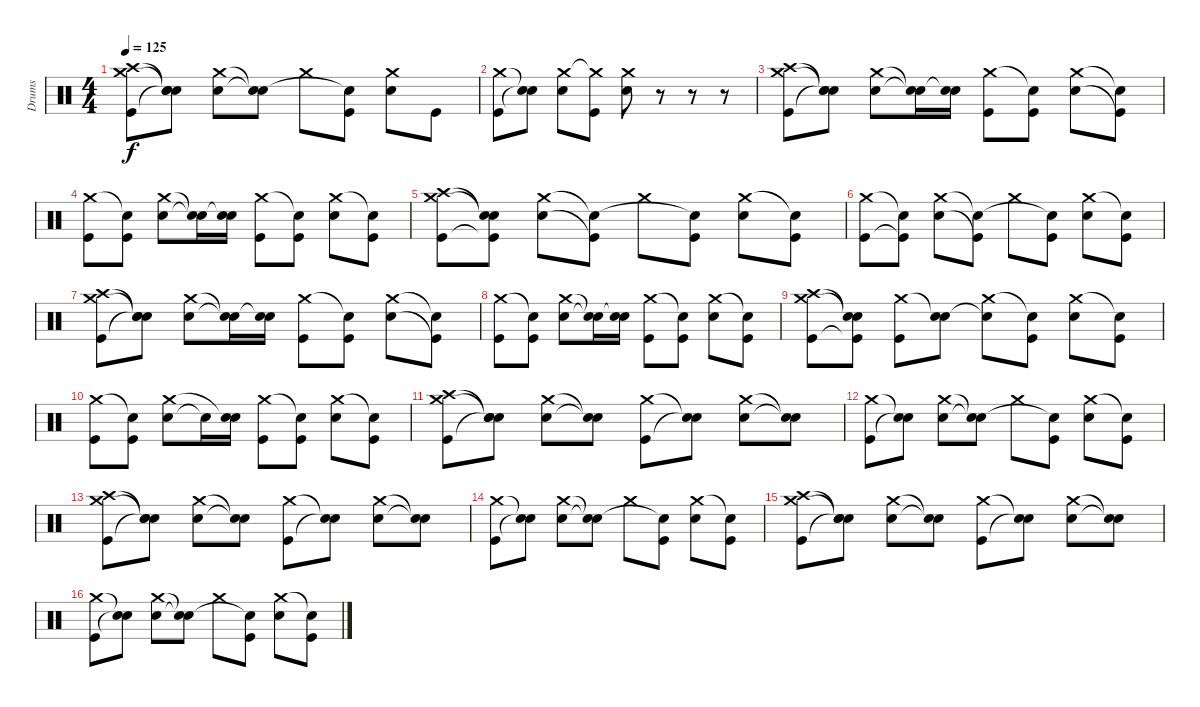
\track ("Drums" "Drums") {instrument percussion}
\staff {score}
\articulation defaults
\ts (4 4)
\tempo 125
\clef neutral
\ks c
("Kick (hit)" "Crash medium (hit)" "Crash high (hit)").8{dy f} ("Snare (hit)"{t} "Snare (hit)"{t} "Snare (hit)"{t}).8 ("Snare (hit) 2" "Crash medium (hit)").8 ("Snare (hit)"{t} "Snare (hit)"{t}).8 "Crash medium (hit)".8 ("Kick (hit)" "Snare (hit)"{t}).8 ("Snare (hit) 2" "Crash medium (hit)").8 "Kick (hit)".8 |
("Kick (hit)" "Crash medium (hit)").8 ("Snare (hit) 2"{t} "Snare (hit)"{t}).8 ("Snare (hit) 2" "Crash medium (hit)").8 ("Kick (hit)" "Crash medium (hit)"{t}).8 ("Snare (hit) 2" "Crash medium (hit)").8 r.8 r.8 r.8 |
("Kick (hit)" "Crash medium (hit)" "Crash high (hit)").8 ("Snare (hit)"{t} "Snare (hit)"{t} "Snare (hit)"{t}).8 ("Snare (hit) 2" "Crash medium (hit)").8 ("Snare (hit)"{t} "Snare (hit)"{t}).16 ("Snare (hit) 2" "Snare (hit)"{t}).16 ("Kick (hit)" "Crash medium (hit)").8 ("Kick (hit)" "Snare (hit)"{t}).8 ("Snare (hit) 2" "Crash medium (hit)").8 ("Kick (hit)"{t} "Snare (hit)"{t}).8 |
("Kick (hit)" "Crash medium (hit)").8 ("Kick (hit)" "Snare (hit)"{t}).8 ("Snare (hit) 2" "Crash medium (hit)").8 ("Snare (hit)"{t} "Snare (hit)"{t}).16 ("Snare (hit) 2" "Snare (hit)"{t}).16 ("Kick (hit)" "Crash medium (hit)").8 ("Kick (hit)" "Snare (hit)"{t}).8 ("Snare (hit) 2" "Crash medium (hit)").8 ("Kick (hit)" "Snare (hit)"{t}).8 |
("Kick (hit)" "Crash medium (hit)" "Crash high (hit)").8 ("Kick (hit)"{t} "Snare (hit)"{t} "Snare (hit)"{t}).8 ("Snare (hit) 2" "Crash medium (hit)").8 ("Kick (hit)"{t} "Snare (hit)"{t}).8 "Crash medium (hit)".8 ("Kick (hit)" "Snare (hit)"{t}).8 ("Snare (hit) 2" "Crash medium (hit)").8 ("Kick (hit)" "Snare (hit)"{t}).8 |
("Kick (hit)" "Crash medium (hit)").8 ("Kick (hit)"{t} "Snare (hit)"{t}).8 ("Snare (hit) 2" "Crash medium (hit)").8 ("Kick (hit)"{t} "Snare (hit)"{t}).8 "Crash medium (hit)".8 ("Kick (hit)" "Snare (hit)"{t}).8 ("Snare (hit) 2" "Crash medium (hit)").8 ("Kick (hit)" "Snare (hit)"{t}).8 |
("Kick (hit)" "Crash medium (hit)" "Crash high (hit)").8 ("Snare (hit)"{t} "Snare (hit)"{t} "Snare (hit)"{t}).8 ("Snare (hit) 2" "Crash medium (hit)").8 ("Snare (hit)"{t} "Snare (hit)"{t}).16 ("Snare (hit) 2" "Snare (hit)"{t}).16 ("Kick (hit)" "Crash medium (hit)").8 ("Kick (hit)" "Snare (hit)"{t}).8 ("Snare (hit) 2" "Crash medium (hit)").8 ("Kick (hit)"{t} "Snare (hit)"{t}).8 |
("Kick (hit)" "Crash medium (hit)").8 ("Kick (hit)" "Snare (hit)"{t}).8 ("Snare (hit) 2" "Crash medium (hit)").8 ("Snare (hit)"{t} "Snare (hit)"{t}).16 ("Snare (hit) 2" "Snare (hit)"{t}).16 ("Kick (hit)" "Crash medium (hit)").8 ("Kick (hit)" "Snare (hit)"{t}).8 ("Snare (hit) 2" "Crash medium (hit)").8 ("Kick (hit)" "Snare (hit)"{t}).8 |
("Kick (hit)" "Crash medium (hit)" "Crash high (hit)").8 ("Kick (hit)"{t} "Snare (hit)"{t} "Snare (hit)"{t}).8 ("Kick (hit)" "Crash medium (hit)").8 ("Snare (hit) 2" "Snare (hit)"{t}).8 ("Snare (hit)"{t} "Crash medium (hit)").8 ("Kick (hit)" "Snare (hit)"{t}).8 ("Snare (hit) 2" "Crash medium (hit)").8 ("Kick (hit)" "Snare (hit)"{t}).8 |
("Kick (hit)" "Crash medium (hit)").8 ("Kick (hit)" "Snare (hit)"{t}).8 ("Snare (hit) 2" "Crash medium (hit)").8 "Snare (hit)"{t}.16 ("Snare (hit) 2" "Snare (hit)"{t}).16 ("Kick (hit)" "Crash medium (hit)").8 ("Kick (hit)" "Snare (hit)"{t}).8 ("Snare (hit) 2" "Crash medium (hit)").8 ("Kick (hit)" "Snare (hit)"{t}).8 |
("Kick (hit)" "Crash medium (hit)" "Crash high (hit)").8 ("Snare (hit)"{t} "Snare (hit)"{t} "Snare (hit)"{t}).8 ("Snare (hit) 2" "Crash medium (hit)").8 ("Snare (hit)"{t} "Snare (hit)"{t}).8 ("Kick (hit)" "Crash medium (hit)").8 ("Snare (hit)"{t} "Snare (hit)"{t}).8 ("Snare (hit) 2" "Crash medium (hit)").8 ("Snare (hit)"{t} "Snare (hit)"{t}).8 |
("Kick (hit)" "Crash medium (hit)").8 ("Snare (hit) 2"{t} "Snare (hit)"{t}).8 ("Snare (hit) 2" "Crash medium (hit)").8 ("Snare (hit)"{t} "Snare (hit)"{t}).8 "Crash medium (hit)".8 ("Kick (hit)" "Snare (hit)"{t}).8 ("Snare (hit) 2" "Crash medium (hit)").8 ("Kick (hit)" "Snare (hit)"{t}).8 |
("Kick (hit)" "Crash medium (hit)" "Crash high (hit)").8 ("Snare (hit)"{t} "Snare (hit)"{t} "Snare (hit)"{t}).8 ("Snare (hit) 2" "Crash medium (hit)").8 ("Snare (hit)"{t} "Snare (hit)"{t}).8 ("Kick (hit)" "Crash medium (hit)").8 ("Snare (hit)"{t} "Snare (hit)"{t}).8 ("Snare (hit) 2" "Crash medium (hit)").8 ("Snare (hit)"{t} "Snare (hit)"{t}).8 |
("Kick (hit)" "Crash medium (hit)").8 ("Snare (hit) 2"{t} "Snare (hit)"{t}).8 ("Snare (hit) 2" "Crash medium (hit)").8 ("Snare (hit)"{t} "Snare (hit)"{t}).8 "Crash medium (hit)".8 ("Kick (hit)" "Snare (hit)"{t}).8 ("Snare (hit) 2" "Crash medium (hit)").8 ("Kick (hit)" "Snare (hit)"{t}).8 |
("Kick (hit)" "Crash medium (hit)" "Crash high (hit)").8 ("Snare (hit)"{t} "Snare (hit)"{t} "Snare (hit)"{t}).8 ("Snare (hit) 2" "Crash medium (hit)").8 ("Snare (hit)"{t} "Snare (hit)"{t}).8 ("Kick (hit)" "Crash medium (hit)").8 ("Snare (hit)"{t} "Snare (hit)"{t}).8 ("Snare (hit) 2" "Crash medium (hit)").8 ("Snare (hit)"{t} "Snare (hit)"{t}).8 |
("Kick (hit)" "Crash medium (hit)").8 ("Snare (hit) 2"{t} "Snare (hit)"{t}).8 ("Snare (hit) 2" "Crash medium (hit)").8 ("Snare (hit)"{t} "Snare (hit)"{t}).8 "Crash medium (hit)".8 ("Kick (hit)" "Snare (hit)"{t}).8 ("Snare (hit) 2" "Crash medium (hit)").8 ("Kick (hit)" "Snare (hit)"{t}).8
